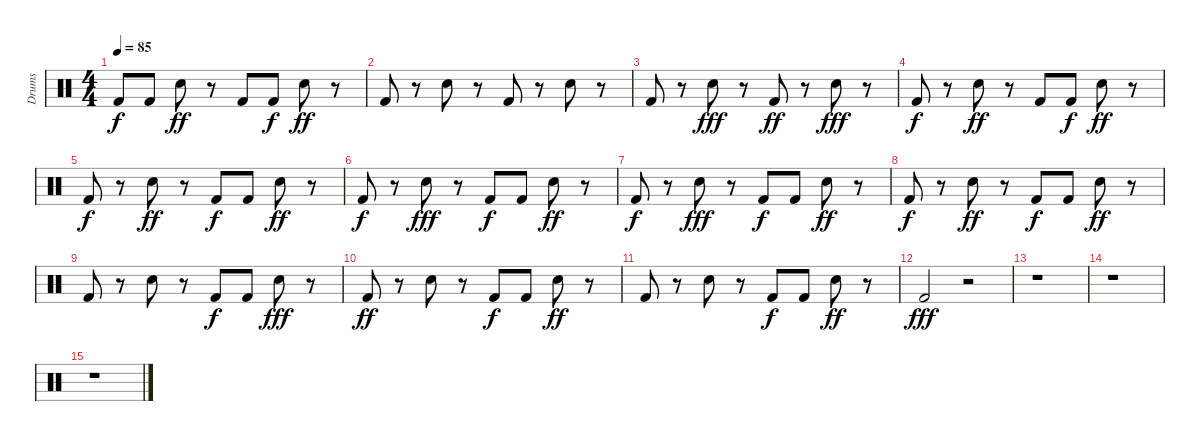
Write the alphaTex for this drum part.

\track ("Drums               " "Drums     ") {instrument percussion}
\staff {score}
\articulation defaults
\ts (4 4)
\tempo 85
\clef neutral
\ks c "Kick (hit) 2".8{dy f} "Kick (hit) 2".8 "Electric Snare (hit)".8{dy ff}
r.8 "Kick (hit) 2".8 "Kick (hit) 2".8{dy f} "Electric Snare (hit)".8{dy ff} r.8 |
"Kick (hit) 2".8 r.8 "Electric Snare (hit)".8 r.8 "Kick (hit) 2".8 r.8 "Electric Snare (hit)".8 r.8 |
"Kick (hit) 2".8 r.8 "Electric Snare (hit)".8{dy fff} r.8 "Kick (hit) 2".8{dy ff} r.8 "Electric Snare (hit)".8{dy fff} r.8 |
"Kick (hit) 2".8{dy f} r.8 "Electric Snare (hit)".8{dy ff} r.8 "Kick (hit) 2".8 "Kick (hit) 2".8{dy f} "Electric Snare (hit)".8{dy ff} r.8 |
"Kick (hit) 2".8{dy f} r.8 "Electric Snare (hit)".8{dy ff} r.8 "Kick (hit) 2".8{dy f} "Kick (hit) 2".8 "Electric Snare (hit)".8{dy ff} r.8 |
"Kick (hit) 2".8{dy f} r.8 "Electric Snare (hit)".8{dy fff} r.8 "Kick (hit) 2".8{dy f} "Kick (hit) 2".8 "Electric Snare (hit)".8{dy ff} r.8 |
"Kick (hit) 2".8{dy f} r.8 "Electric Snare (hit)".8{dy fff} r.8 "Kick (hit) 2".8{dy f} "Kick (hit) 2".8 "Electric Snare (hit)".8{dy ff} r.8 |
"Kick (hit) 2".8{dy f} r.8 "Electric Snare (hit)".8{dy ff} r.8 "Kick (hit) 2".8{dy f} "Kick (hit) 2".8 "Electric Snare (hit)".8{dy ff} r.8 |
"Kick (hit) 2".8 r.8 "Electric Snare (hit)".8 r.8 "Kick (hit) 2".8{dy f} "Kick (hit) 2".8 "Electric Snare (hit)".8{dy fff} r.8 |
"Kick (hit) 2".8{dy ff} r.8 "Electric Snare (hit)".8 r.8 "Kick (hit) 2".8{dy f} "Kick (hit) 2".8 "Electric Snare (hit)".8{dy ff} r.8 |
"Kick (hit) 2".8 r.8 "Electric Snare (hit)".8 r.8 "Kick (hit) 2".8{dy f} "Kick (hit) 2".8 "Electric Snare (hit)".8{dy ff} r.8 |
"Kick (hit) 2".2{dy fff} r.2 |
r.1 |
r.1 |
r.1
